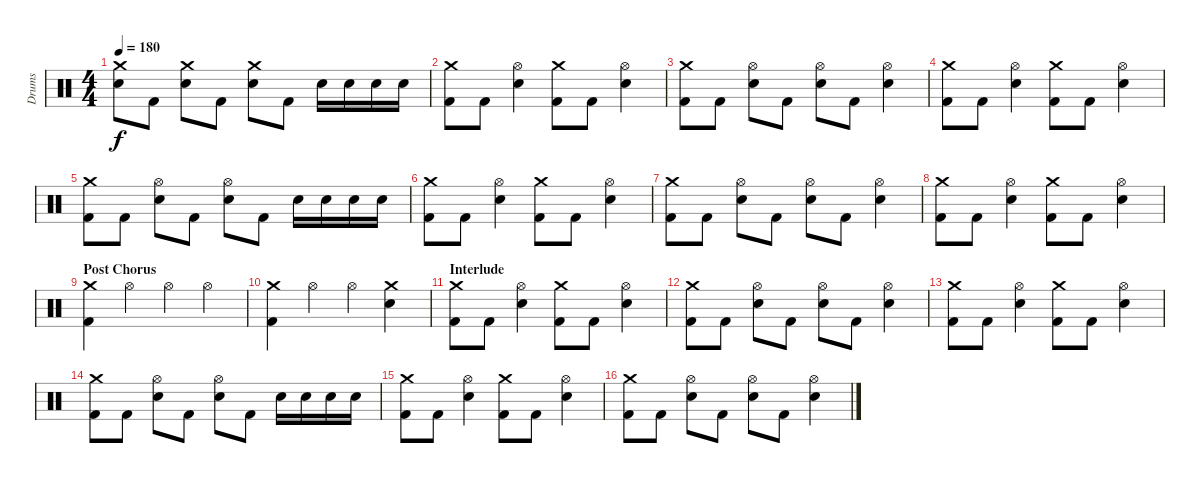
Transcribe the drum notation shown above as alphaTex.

\track ("Drums" "Drums") {instrument percussion}
\staff {score}
\articulation defaults
\ts (4 4)
\tempo 180
\clef neutral
\ks c
("Electric Snare (hit)" "Crash medium (hit)").8{dy f} "Kick (hit) 2".8 ("Electric Snare (hit)" "Crash medium (hit)").8 "Kick (hit) 2".8 ("Electric Snare (hit)" "Crash medium (hit)").8 "Kick (hit) 2".8 "Electric Snare (hit)".16 "Electric Snare (hit)".16 "Electric Snare (hit)".16 "Electric Snare (hit)".16 |
("Kick (hit) 2" "Crash medium (hit)").8 "Kick (hit) 2".8 ("Electric Snare (hit)" "Hi-Hat (open)").4 ("Kick (hit) 2" "Crash medium (hit)").8 "Kick (hit) 2".8 ("Electric Snare (hit)" "Hi-Hat (open)").4 |
("Kick (hit) 2" "Crash medium (hit)").8 "Kick (hit) 2".8 ("Electric Snare (hit)" "Hi-Hat (open)").8 "Kick (hit) 2".8 ("Electric Snare (hit)" "Hi-Hat (open)").8 "Kick (hit) 2".8 ("Electric Snare (hit)" "Hi-Hat (open)").4 |
("Kick (hit) 2" "Crash medium (hit)").8 "Kick (hit) 2".8 ("Electric Snare (hit)" "Hi-Hat (open)").4 ("Kick (hit) 2" "Crash medium (hit)").8 "Kick (hit) 2".8 ("Electric Snare (hit)" "Hi-Hat (open)").4 |
("Kick (hit) 2" "Crash medium (hit)").8 "Kick (hit) 2".8 ("Electric Snare (hit)" "Hi-Hat (open)").8 "Kick (hit) 2".8 ("Electric Snare (hit)" "Hi-Hat (open)").8 "Kick (hit) 2".8 "Electric Snare (hit)".16 "Electric Snare (hit)".16 "Electric Snare (hit)".16 "Electric Snare (hit)".16 |
("Kick (hit) 2" "Crash medium (hit)").8 "Kick (hit) 2".8 ("Electric Snare (hit)" "Hi-Hat (open)").4 ("Kick (hit) 2" "Crash medium (hit)").8 "Kick (hit) 2".8 ("Electric Snare (hit)" "Hi-Hat (open)").4 |
("Kick (hit) 2" "Crash medium (hit)").8 "Kick (hit) 2".8 ("Electric Snare (hit)" "Hi-Hat (open)").8 "Kick (hit) 2".8 ("Electric Snare (hit)" "Hi-Hat (open)").8 "Kick (hit) 2".8 ("Electric Snare (hit)" "Hi-Hat (open)").4 |
("Kick (hit) 2" "Crash medium (hit)").8 "Kick (hit) 2".8 ("Electric Snare (hit)" "Hi-Hat (open)").4 ("Kick (hit) 2" "Crash medium (hit)").8 "Kick (hit) 2".8 ("Electric Snare (hit)" "Hi-Hat (open)").4 |
\section ("" "Post Chorus")
("Kick (hit) 2" "Crash medium (hit)").4 "Hi-Hat (open)".4 "Hi-Hat (open)".4 "Hi-Hat (open)".4 |
("Kick (hit) 2" "Crash medium (hit)").4 "Hi-Hat (open)".4 "Hi-Hat (open)".4 ("Crash medium (hit)" "Electric Snare (hit)").4 |
\section ("" "Interlude")
("Kick (hit) 2" "Crash medium (hit)").8 "Kick (hit) 2".8 ("Electric Snare (hit)" "Hi-Hat (open)").4 ("Kick (hit) 2" "Crash medium (hit)").8 "Kick (hit) 2".8 ("Electric Snare (hit)" "Hi-Hat (open)").4 |
("Kick (hit) 2" "Crash medium (hit)").8 "Kick (hit) 2".8 ("Electric Snare (hit)" "Hi-Hat (open)").8 "Kick (hit) 2".8 ("Electric Snare (hit)" "Hi-Hat (open)").8 "Kick (hit) 2".8 ("Electric Snare (hit)" "Hi-Hat (open)").4 |
("Kick (hit) 2" "Crash medium (hit)").8 "Kick (hit) 2".8 ("Electric Snare (hit)" "Hi-Hat (open)").4 ("Kick (hit) 2" "Crash medium (hit)").8 "Kick (hit) 2".8 ("Electric Snare (hit)" "Hi-Hat (open)").4 |
("Kick (hit) 2" "Crash medium (hit)").8 "Kick (hit) 2".8 ("Electric Snare (hit)" "Hi-Hat (open)").8 "Kick (hit) 2".8 ("Electric Snare (hit)" "Hi-Hat (open)").8 "Kick (hit) 2".8 "Electric Snare (hit)".16 "Electric Snare (hit)".16 "Electric Snare (hit)".16 "Electric Snare (hit)".16 |
("Kick (hit) 2" "Crash medium (hit)").8 "Kick (hit) 2".8 ("Electric Snare (hit)" "Hi-Hat (open)").4 ("Kick (hit) 2" "Crash medium (hit)").8 "Kick (hit) 2".8 ("Electric Snare (hit)" "Hi-Hat (open)").4 |
("Kick (hit) 2" "Crash medium (hit)").8 "Kick (hit) 2".8 ("Electric Snare (hit)" "Hi-Hat (open)").8 "Kick (hit) 2".8 ("Electric Snare (hit)" "Hi-Hat (open)").8 "Kick (hit) 2".8 ("Electric Snare (hit)" "Hi-Hat (open)").4
